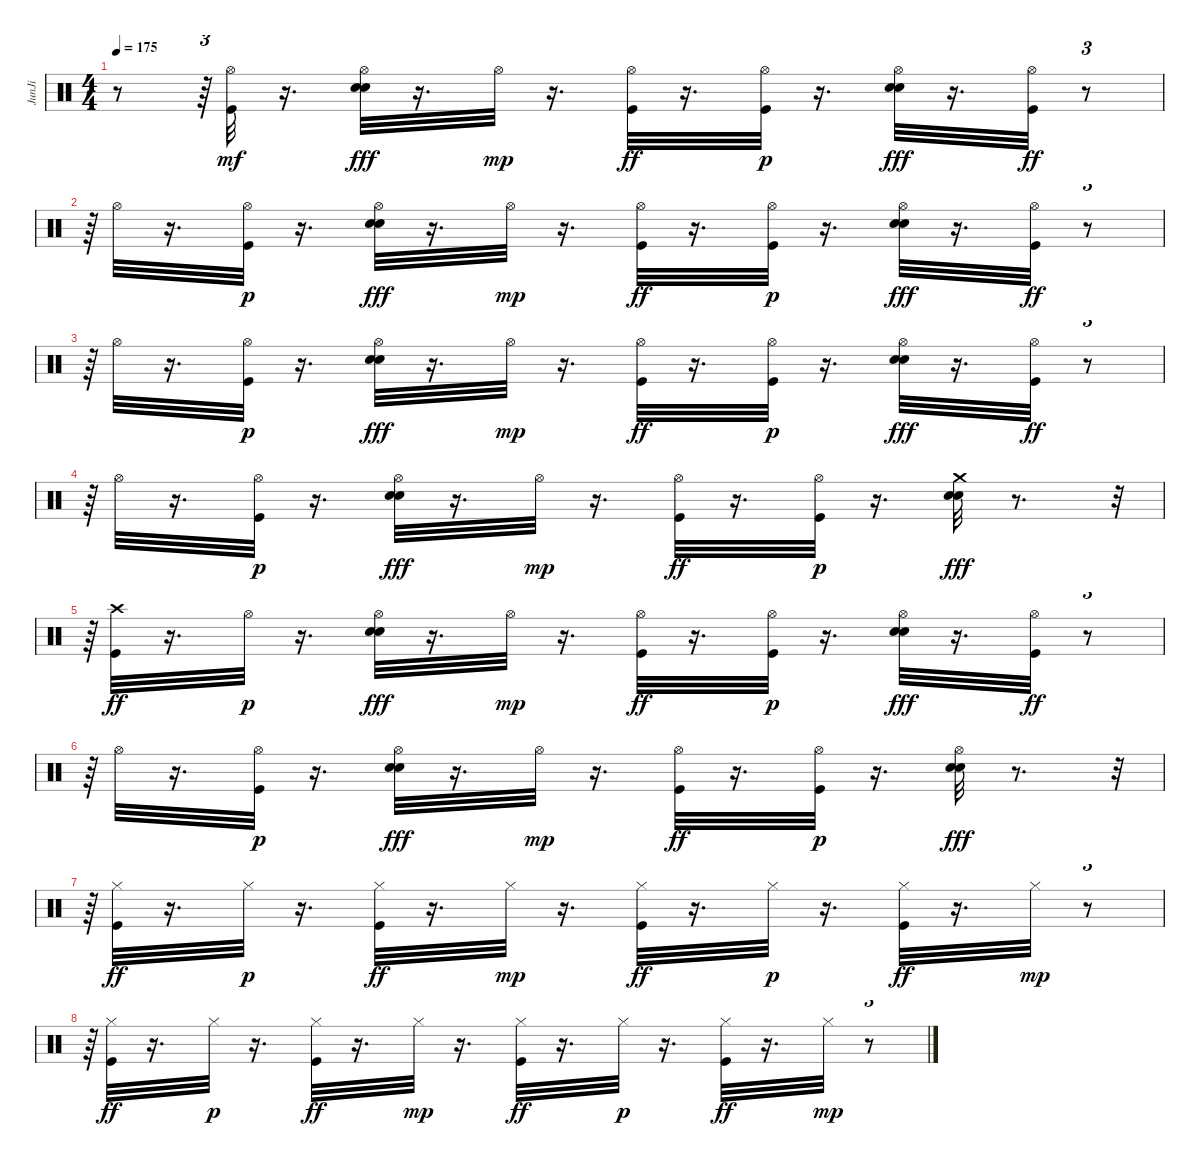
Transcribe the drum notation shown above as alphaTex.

\track ("JunJi" "JunJi") {instrument percussion}
\staff {score}
\articulation defaults
\ts (4 4)
\tempo 175
\clef neutral
\ks c
r.8{dy ff} r.64{tu (3 2)} ("Hi-Hat (open)" "Kick (hit)").32{dy mf} r.16{d} ("Hi-Hat (open)" "Electric Snare (hit)" "Snare (hit) 2").32{dy fff} r.16{d} "Hi-Hat (open)".32{dy mp} r.16{d} ("Hi-Hat (open)" "Kick (hit)").32{dy ff} r.16{d} ("Hi-Hat (open)" "Kick (hit)").32{dy p} r.16{d} ("Hi-Hat (open)" "Electric Snare (hit)" "Snare (hit) 2").32{dy fff} r.16{d} ("Hi-Hat (open)" "Kick (hit)").32{dy ff} r.8{tu (3 2)} |
r.64{tu (3 2)} "Hi-Hat (open)".32 r.16{d} ("Hi-Hat (open)" "Kick (hit)").32{dy p} r.16{d} ("Hi-Hat (open)" "Electric Snare (hit)" "Snare (hit) 2").32{dy fff} r.16{d} "Hi-Hat (open)".32{dy mp} r.16{d} ("Hi-Hat (open)" "Kick (hit)").32{dy ff} r.16{d} ("Hi-Hat (open)" "Kick (hit)").32{dy p} r.16{d} ("Hi-Hat (open)" "Electric Snare (hit)" "Snare (hit) 2").32{dy fff} r.16{d} ("Hi-Hat (open)" "Kick (hit)").32{dy ff} r.8{tu (3 2)} |
r.64{tu (3 2)} "Hi-Hat (open)".32 r.16{d} ("Hi-Hat (open)" "Kick (hit)").32{dy p} r.16{d} ("Hi-Hat (open)" "Electric Snare (hit)" "Snare (hit) 2").32{dy fff} r.16{d} "Hi-Hat (open)".32{dy mp} r.16{d} ("Hi-Hat (open)" "Kick (hit)").32{dy ff} r.16{d} ("Hi-Hat (open)" "Kick (hit)").32{dy p} r.16{d} ("Hi-Hat (open)" "Electric Snare (hit)" "Snare (hit) 2").32{dy fff} r.16{d} ("Hi-Hat (open)" "Kick (hit)").32{dy ff} r.8{tu (3 2)} |
r.64{tu (3 2)} "Hi-Hat (open)".32 r.16{d} ("Hi-Hat (open)" "Kick (hit)").32{dy p} r.16{d} ("Hi-Hat (open)" "Electric Snare (hit)" "Snare (hit) 2").32{dy fff} r.16{d} "Hi-Hat (open)".32{dy mp} r.16{d} ("Hi-Hat (open)" "Kick (hit)").32{dy ff} r.16{d} ("Hi-Hat (open)" "Kick (hit)").32{dy p} r.16{d} ("Crash medium (hit)" "Electric Snare (hit)" "Snare (hit) 2").32{dy fff} r.8{d} r.32{tu (3 2)} |
r.64{tu (3 2)} ("Crash high (hit)" "Kick (hit)").32{dy ff} r.16{d} "Hi-Hat (open)".32{dy p} r.16{d} ("Hi-Hat (open)" "Electric Snare (hit)" "Snare (hit) 2").32{dy fff} r.16{d} "Hi-Hat (open)".32{dy mp} r.16{d} ("Hi-Hat (open)" "Kick (hit)").32{dy ff} r.16{d} ("Hi-Hat (open)" "Kick (hit)").32{dy p} r.16{d} ("Hi-Hat (open)" "Electric Snare (hit)" "Snare (hit) 2").32{dy fff} r.16{d} ("Hi-Hat (open)" "Kick (hit)").32{dy ff} r.8{tu (3 2)} |
r.64{tu (3 2)} "Hi-Hat (open)".32 r.16{d} ("Hi-Hat (open)" "Kick (hit)").32{dy p} r.16{d} ("Hi-Hat (open)" "Electric Snare (hit)" "Snare (hit) 2").32{dy fff} r.16{d} "Hi-Hat (open)".32{dy mp} r.16{d} ("Hi-Hat (open)" "Kick (hit)").32{dy ff} r.16{d} ("Hi-Hat (open)" "Kick (hit)").32{dy p} r.16{d} ("Hi-Hat (open)" "Electric Snare (hit)" "Snare (hit) 2").32{dy fff} r.8{d} r.32{tu (3 2)} |
r.64{tu (3 2)} ("Hi-Hat (closed)" "Kick (hit)").32{dy ff} r.16{d} "Hi-Hat (closed)".32{dy p} r.16{d} ("Hi-Hat (closed)" "Kick (hit)").32{dy ff} r.16{d} "Hi-Hat (closed)".32{dy mp} r.16{d} ("Hi-Hat (closed)" "Kick (hit)").32{dy ff} r.16{d} "Hi-Hat (closed)".32{dy p} r.16{d} ("Hi-Hat (closed)" "Kick (hit)").32{dy ff} r.16{d} "Hi-Hat (closed)".32{dy mp} r.8{tu (3 2)} |
r.64{tu (3 2)} ("Hi-Hat (closed)" "Kick (hit)").32{dy ff} r.16{d} "Hi-Hat (closed)".32{dy p} r.16{d} ("Hi-Hat (closed)" "Kick (hit)").32{dy ff} r.16{d} "Hi-Hat (closed)".32{dy mp} r.16{d} ("Hi-Hat (closed)" "Kick (hit)").32{dy ff} r.16{d} "Hi-Hat (closed)".32{dy p} r.16{d} ("Hi-Hat (closed)" "Kick (hit)").32{dy ff} r.16{d} "Hi-Hat (closed)".32{dy mp} r.8{tu (3 2)}
